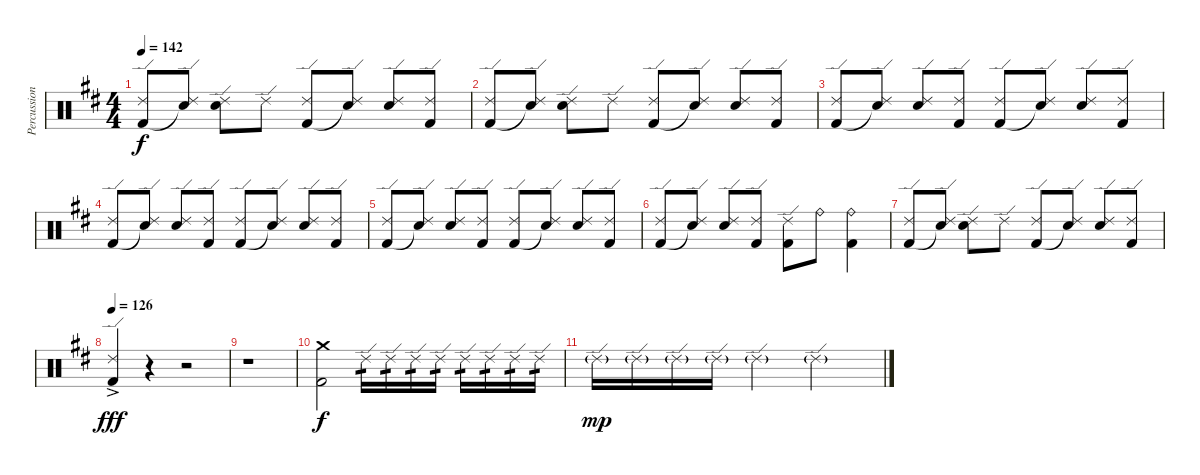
\track ("Percussion" "Percussion") {instrument percussion}
\staff {score}
\articulation defaults
\ts (4 4)
\tempo 142
\clef neutral
\ks d
("Ride (edge) 2" "Kick (hit) 2").8{dy f} ("Ride (edge) 2" "Snare (hit)"{t}).8 ("Ride (edge) 2" "Snare (hit) 2").8 "Ride (edge) 2".8 ("Ride (edge) 2" "Kick (hit) 2").8 ("Ride (edge) 2" "Snare (hit)"{t}).8 ("Ride (edge) 2" "Snare (hit) 2").8 ("Ride (edge) 2" "Kick (hit) 2").8 |
("Ride (edge) 2" "Kick (hit) 2").8 ("Ride (edge) 2" "Snare (hit)"{t}).8 ("Ride (edge) 2" "Snare (hit) 2").8 "Ride (edge) 2".8 ("Ride (edge) 2" "Kick (hit) 2").8 ("Ride (edge) 2" "Snare (hit)"{t}).8 ("Ride (edge) 2" "Snare (hit) 2").8 ("Ride (edge) 2" "Kick (hit) 2").8 |
("Ride (edge) 2" "Kick (hit) 2").8 ("Ride (edge) 2" "Snare (hit)"{t}).8 ("Ride (edge) 2" "Snare (hit) 2").8 ("Ride (edge) 2" "Kick (hit) 2").8 ("Ride (edge) 2" "Kick (hit) 2").8 ("Ride (edge) 2" "Snare (hit)"{t}).8 ("Ride (edge) 2" "Snare (hit) 2").8 ("Ride (edge) 2" "Kick (hit) 2").8 |
("Ride (edge) 2" "Kick (hit) 2").8 ("Ride (edge) 2" "Snare (hit)"{t}).8 ("Ride (edge) 2" "Snare (hit) 2").8 ("Ride (edge) 2" "Kick (hit) 2").8 ("Ride (edge) 2" "Kick (hit) 2").8 ("Ride (edge) 2" "Snare (hit)"{t}).8 ("Ride (edge) 2" "Snare (hit) 2").8 ("Ride (edge) 2" "Kick (hit) 2").8 |
("Ride (edge) 2" "Kick (hit) 2").8 ("Ride (edge) 2" "Snare (hit)"{t}).8 ("Ride (edge) 2" "Snare (hit) 2").8 ("Ride (edge) 2" "Kick (hit) 2").8 ("Ride (edge) 2" "Kick (hit) 2").8 ("Ride (edge) 2" "Snare (hit)"{t}).8 ("Ride (edge) 2" "Snare (hit) 2").8 ("Ride (edge) 2" "Kick (hit) 2").8 |
("Ride (edge) 2" "Kick (hit) 2").8 ("Ride (edge) 2" "Snare (hit)"{t}).8 ("Ride (edge) 2" "Snare (hit) 2").8 ("Ride (edge) 2" "Kick (hit) 2").8 ("Ride (edge) 2" "Kick (hit) 2").8 "Ride (bell)".8 ("Ride (bell)" "Kick (hit) 2").4 |
("Ride (edge) 2" "Kick (hit) 2").8 ("Ride (edge) 2" "Snare (hit)"{t}).8 ("Ride (edge) 2" "Snare (hit) 2").8 "Ride (edge) 2".8 ("Ride (edge) 2" "Kick (hit) 2").8 ("Ride (edge) 2" "Snare (hit)"{t}).8 ("Ride (edge) 2" "Snare (hit) 2").8 ("Ride (edge) 2" "Kick (hit) 2").8 |
\tempo 126
("Ride (edge) 2"{ac} "Kick (hit) 2").4{dy fff} r.4 r.2 |
r.1 |
("Crash medium (hit)" "Kick (hit) 2").2{dy f} "Ride (edge) 2".16{tp 1} "Ride (edge) 2".16{tp 1} "Ride (edge) 2".16{tp 1} "Ride (edge) 2".16{tp 1} "Ride (edge) 2".16{tp 1} "Ride (edge) 2".16{tp 1} "Ride (edge) 2".16{tp 1} "Ride (edge) 2".16{tp 1} |
"Ride (edge) 2"{g}.16{dy mp} "Ride (edge) 2"{g}.16 "Ride (edge) 2"{g}.16 "Ride (edge) 2"{g}.16 "Ride (edge) 2"{g}.4 "Ride (edge) 2"{g}.2
